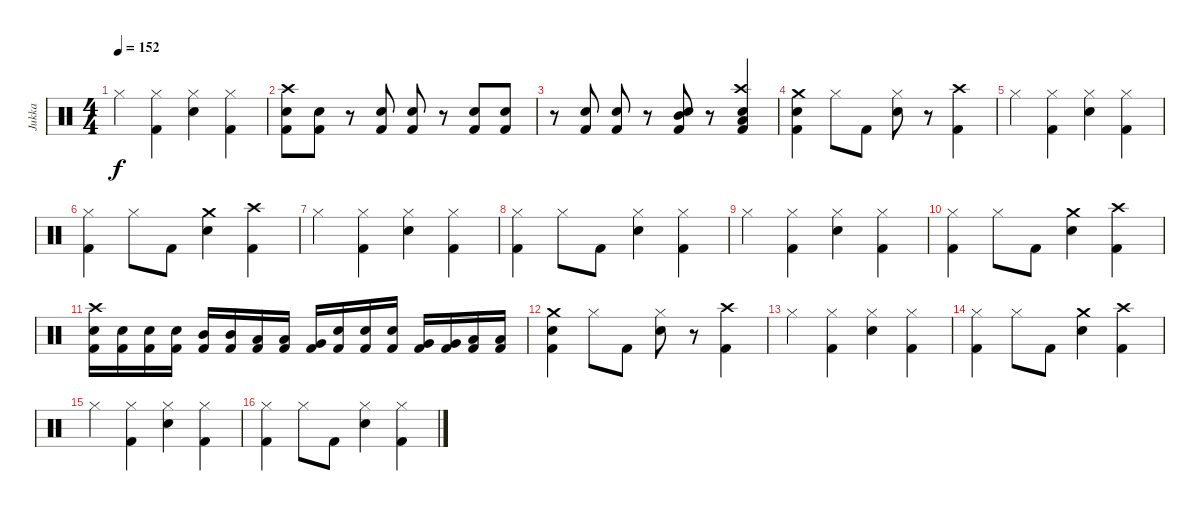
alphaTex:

\track ("Jukka" "Jukka") {instrument percussion}
\staff {score}
\articulation defaults
\ts (4 4)
\tempo 152
\clef neutral
\ks c "Hi-Hat (closed)".4{dy f}
("Hi-Hat (closed)" "Kick (hit) 2").4 ("Hi-Hat (closed)" "Electric Snare (hit)").4 ("Hi-Hat (closed)" "Kick (hit) 2").4 |
("Crash high (hit)" "Electric Snare (hit)" "Kick (hit) 2").8 ("Electric Snare (hit)" "Kick (hit) 2").8 r.8 ("Electric Snare (hit)" "Kick (hit) 2").8 ("Electric Snare (hit)" "Kick (hit) 2").8 r.8 ("Electric Snare (hit)" "Kick (hit) 2").8 ("Electric Snare (hit)" "Kick (hit) 2").8 |
r.8 ("Electric Snare (hit)" "Kick (hit) 2").8 ("Electric Snare (hit)" "Kick (hit) 2").8 r.8 ("Electric Snare (hit)" "Mid Tom (hit)" "Kick (hit) 2").8 r.8 ("Crash high (hit)" "Electric Snare (hit)" "Low Tom (hit)" "Kick (hit) 2").4 |
("Crash medium (hit)" "Electric Snare (hit)" "Kick (hit) 2").4 "Hi-Hat (closed)".8 "Kick (hit) 2".8 ("Hi-Hat (closed)" "Electric Snare (hit)").8 r.8 ("Crash high (hit)" "Kick (hit) 2").4 |
"Hi-Hat (closed)".4 ("Hi-Hat (closed)" "Kick (hit) 2").4 ("Hi-Hat (closed)" "Electric Snare (hit)").4 ("Hi-Hat (closed)" "Kick (hit) 2").4 |
("Hi-Hat (closed)" "Kick (hit) 2").4 "Hi-Hat (closed)".8 "Kick (hit) 2".8 ("Crash medium (hit)" "Electric Snare (hit)").4 ("Crash high (hit)" "Kick (hit) 2").4 |
"Hi-Hat (closed)".4 ("Hi-Hat (closed)" "Kick (hit) 2").4 ("Hi-Hat (closed)" "Electric Snare (hit)").4 ("Hi-Hat (closed)" "Kick (hit) 2").4 |
("Hi-Hat (closed)" "Kick (hit) 2").4 "Hi-Hat (closed)".8 "Kick (hit) 2".8 ("Hi-Hat (closed)" "Electric Snare (hit)").4 ("Hi-Hat (closed)" "Kick (hit) 2").4 |
"Hi-Hat (closed)".4 ("Hi-Hat (closed)" "Kick (hit) 2").4 ("Hi-Hat (closed)" "Electric Snare (hit)").4 ("Hi-Hat (closed)" "Kick (hit) 2").4 |
("Hi-Hat (closed)" "Kick (hit) 2").4 "Hi-Hat (closed)".8 "Kick (hit) 2".8 ("Crash medium (hit)" "Electric Snare (hit)").4 ("Crash high (hit)" "Kick (hit) 2").4 |
("Crash high (hit)" "Electric Snare (hit)" "Kick (hit) 2").16 ("Electric Snare (hit)" "Kick (hit) 2").16 ("Electric Snare (hit)" "Kick (hit) 2").16 ("Electric Snare (hit)" "Kick (hit) 2").16 ("Mid Tom (hit)" "Kick (hit) 2").16 ("Mid Tom (hit)" "Kick (hit) 2").16 ("Low Tom (hit)" "Kick (hit) 2").16 ("Low Tom (hit)" "Kick (hit) 2").16 ("Very Low Tom (hit)" "Kick (hit) 2").16 ("Electric Snare (hit)" "Kick (hit) 2").16 ("Electric Snare (hit)" "Kick (hit) 2").16 ("Electric Snare (hit)" "Kick (hit) 2").16 ("Very Low Tom (hit)" "Kick (hit) 2").16 ("Very Low Tom (hit)" "Kick (hit) 2").16 ("Low Floor Tom (hit)" "Kick (hit) 2").16 ("Low Floor Tom (hit)" "Kick (hit) 2").16 |
("Crash medium (hit)" "Electric Snare (hit)" "Kick (hit) 2").4 "Hi-Hat (closed)".8 "Kick (hit) 2".8 ("Hi-Hat (closed)" "Electric Snare (hit)").8 r.8 ("Crash high (hit)" "Kick (hit) 2").4 |
"Hi-Hat (closed)".4 ("Hi-Hat (closed)" "Kick (hit) 2").4 ("Hi-Hat (closed)" "Electric Snare (hit)").4 ("Hi-Hat (closed)" "Kick (hit) 2").4 |
("Hi-Hat (closed)" "Kick (hit) 2").4 "Hi-Hat (closed)".8 "Kick (hit) 2".8 ("Crash medium (hit)" "Electric Snare (hit)").4 ("Crash high (hit)" "Kick (hit) 2").4 |
"Hi-Hat (closed)".4 ("Hi-Hat (closed)" "Kick (hit) 2").4 ("Hi-Hat (closed)" "Electric Snare (hit)").4 ("Hi-Hat (closed)" "Kick (hit) 2").4 |
("Hi-Hat (closed)" "Kick (hit) 2").4 "Hi-Hat (closed)".8 "Kick (hit) 2".8 ("Hi-Hat (closed)" "Electric Snare (hit)").4 ("Hi-Hat (closed)" "Kick (hit) 2").4
